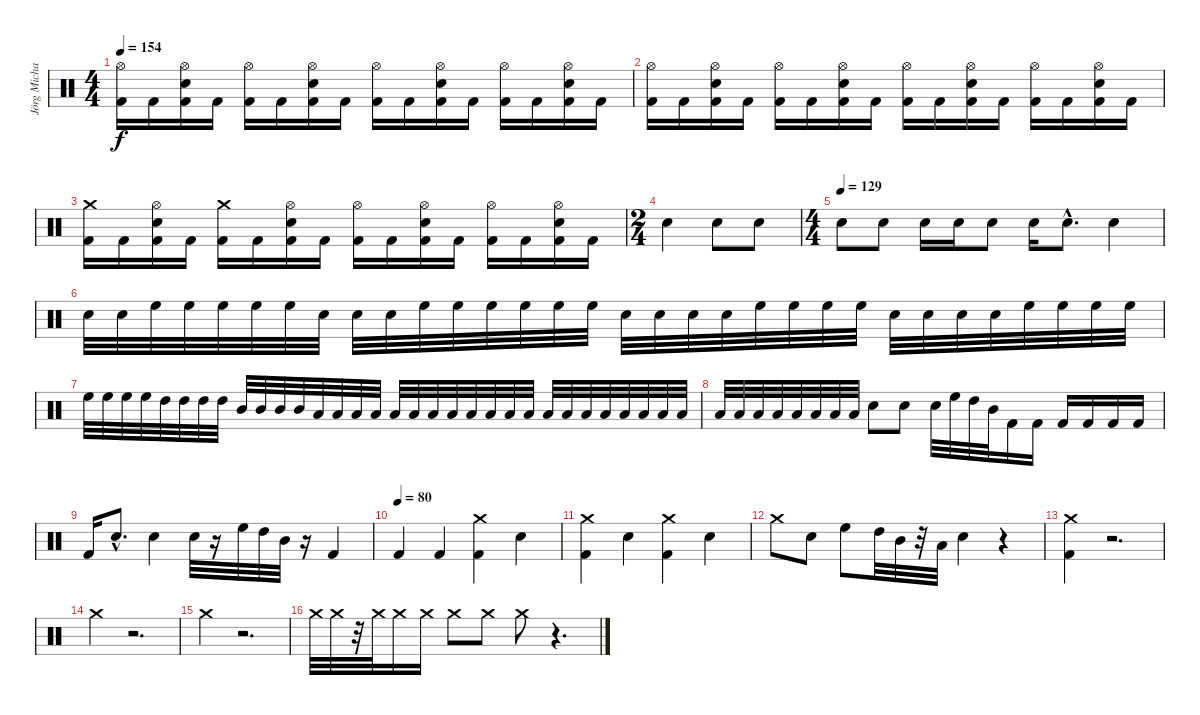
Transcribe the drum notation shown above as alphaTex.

\track ("Jörg Michael" "Jörg Micha") {instrument percussion}
\staff {score}
\articulation defaults
\ts (4 4)
\tempo 154
\clef neutral
\ks c
("Hi-Hat (open)" "Kick (hit) 2").16{dy f} "Kick (hit) 2".16 ("Snare (hit) 2" "Hi-Hat (open)" "Kick (hit) 2").16 "Kick (hit) 2".16 ("Hi-Hat (open)" "Kick (hit) 2").16 "Kick (hit) 2".16 ("Snare (hit) 2" "Hi-Hat (open)" "Kick (hit) 2").16 "Kick (hit) 2".16 ("Hi-Hat (open)" "Kick (hit) 2").16 "Kick (hit) 2".16 ("Snare (hit) 2" "Hi-Hat (open)" "Kick (hit) 2").16 "Kick (hit) 2".16 ("Hi-Hat (open)" "Kick (hit) 2").16 "Kick (hit) 2".16 ("Snare (hit) 2" "Hi-Hat (open)" "Kick (hit) 2").16 "Kick (hit) 2".16 |
("Hi-Hat (open)" "Kick (hit) 2").16 "Kick (hit) 2".16 ("Snare (hit) 2" "Hi-Hat (open)" "Kick (hit) 2").16 "Kick (hit) 2".16 ("Hi-Hat (open)" "Kick (hit) 2").16 "Kick (hit) 2".16 ("Snare (hit) 2" "Hi-Hat (open)" "Kick (hit) 2").16 "Kick (hit) 2".16 ("Hi-Hat (open)" "Kick (hit) 2").16 "Kick (hit) 2".16 ("Snare (hit) 2" "Hi-Hat (open)" "Kick (hit) 2").16 "Kick (hit) 2".16 ("Hi-Hat (open)" "Kick (hit) 2").16 "Kick (hit) 2".16 ("Snare (hit) 2" "Hi-Hat (open)" "Kick (hit) 2").16 "Kick (hit) 2".16 |
("Crash medium (hit)" "Kick (hit) 2").16 "Kick (hit) 2".16 ("Snare (hit) 2" "Hi-Hat (open)" "Kick (hit) 2").16 "Kick (hit) 2".16 ("Crash medium (hit)" "Kick (hit) 2").16 "Kick (hit) 2".16 ("Snare (hit) 2" "Hi-Hat (open)" "Kick (hit) 2").16 "Kick (hit) 2".16 ("Hi-Hat (open)" "Kick (hit) 2").16 "Kick (hit) 2".16 ("Snare (hit) 2" "Hi-Hat (open)" "Kick (hit) 2").16 "Kick (hit) 2".16 ("Hi-Hat (open)" "Kick (hit) 2").16 "Kick (hit) 2".16 ("Snare (hit) 2" "Hi-Hat (open)" "Kick (hit) 2").16 "Kick (hit) 2".16 |
\ts (2 4)
"Snare (hit) 2".4 "Snare (hit) 2".8 "Snare (hit) 2".8 |
\ts (4 4)
\tempo (129)
"Snare (hit) 2".8 "Snare (hit) 2".8 "Snare (hit) 2".16 "Snare (hit) 2".16 "Snare (hit) 2".8 "Snare (hit) 2".16 "Snare (hit) 2"{hac}.8{d} "Snare (hit) 2".4 |
"Snare (hit) 2".32 "Snare (hit) 2".32 "High Floor Tom (hit)".32 "High Floor Tom (hit)".32 "High Floor Tom (hit)".32 "High Floor Tom (hit)".32 "High Floor Tom (hit)".32 "Snare (hit) 2".32 "Snare (hit) 2".32 "Snare (hit) 2".32 "High Floor Tom (hit)".32 "High Floor Tom (hit)".32 "High Floor Tom (hit)".32 "High Floor Tom (hit)".32 "High Floor Tom (hit)".32 "High Floor Tom (hit)".32 "Snare (hit) 2".32 "Snare (hit) 2".32 "Snare (hit) 2".32 "Snare (hit) 2".32 "High Floor Tom (hit)".32 "High Floor Tom (hit)".32 "High Floor Tom (hit)".32 "High Floor Tom (hit)".32 "Snare (hit) 2".32 "Snare (hit) 2".32 "Snare (hit) 2".32 "Snare (hit) 2".32 "High Floor Tom (hit)".32 "High Floor Tom (hit)".32 "High Floor Tom (hit)".32 "High Floor Tom (hit)".32 |
"High Floor Tom (hit)".32 "High Floor Tom (hit)".32 "High Floor Tom (hit)".32 "High Floor Tom (hit)".32 "High Tom (hit)".32 "High Tom (hit)".32 "High Tom (hit)".32 "High Tom (hit)".32 "Mid Tom (hit)".32 "Mid Tom (hit)".32 "Mid Tom (hit)".32 "Mid Tom (hit)".32 "Low Tom (hit)".32 "Low Tom (hit)".32 "Low Tom (hit)".32 "Low Tom (hit)".32 "Low Tom (hit)".32 "Low Tom (hit)".32 "Low Tom (hit)".32 "Low Tom (hit)".32 "Low Tom (hit)".32 "Low Tom (hit)".32 "Low Tom (hit)".32 "Low Tom (hit)".32 "Low Tom (hit)".32 "Low Tom (hit)".32 "Low Tom (hit)".32 "Low Tom (hit)".32 "Low Tom (hit)".32 "Low Tom (hit)".32 "Low Tom (hit)".32 "Low Tom (hit)".32 |
"Low Tom (hit)".32 "Low Tom (hit)".32 "Low Tom (hit)".32 "Low Tom (hit)".32 "Low Tom (hit)".32 "Low Tom (hit)".32 "Low Tom (hit)".32 "Low Tom (hit)".32 "Snare (hit) 2".8 "Snare (hit) 2".8 "Snare (hit) 2".32 "High Floor Tom (hit)".32 "High Tom (hit)".32 "Mid Tom (hit)".32 "Kick (hit) 2".16 "Kick (hit) 2".16 "Kick (hit) 2".16 "Kick (hit) 2".16 "Kick (hit) 2".16 "Kick (hit) 2".16 |
"Kick (hit) 2".16 "Snare (hit) 2"{hac}.8{d} "Snare (hit) 2".4 "Snare (hit) 2".32 r.16 "High Floor Tom (hit)".32 "High Tom (hit)".32 "Mid Tom (hit)".32 r.16 "Kick (hit) 2".4 |
\tempo (80)
"Kick (hit) 2".4 "Kick (hit) 2".4 ("Kick (hit) 2" "Crash medium (hit)").4 "Snare (hit) 2".4 |
("Kick (hit) 2" "Crash medium (hit)").4 "Snare (hit) 2".4 ("Kick (hit) 2" "Crash medium (hit)").4 "Snare (hit) 2".4 |
"Crash medium (hit)".8 "Snare (hit) 2".8 "High Floor Tom (hit)".8 "High Tom (hit)".32 "Mid Tom (hit)".32 r.32 "Low Tom (hit)".32 "Snare (hit) 2".4 r.4 |
("Crash medium (hit)" "Kick (hit) 2").4 r.2{d} |
"Crash medium (hit)".4 r.2{d} |
"Crash medium (hit)".4 r.2{d} |
"Crash medium (hit)".32 "Crash medium (hit)".32 r.32 "Crash medium (hit)".32 "Crash medium (hit)".16 "Crash medium (hit)".16 "Crash medium (hit)".8 "Crash medium (hit)".8 "Crash medium (hit)".8 r.4{d}
